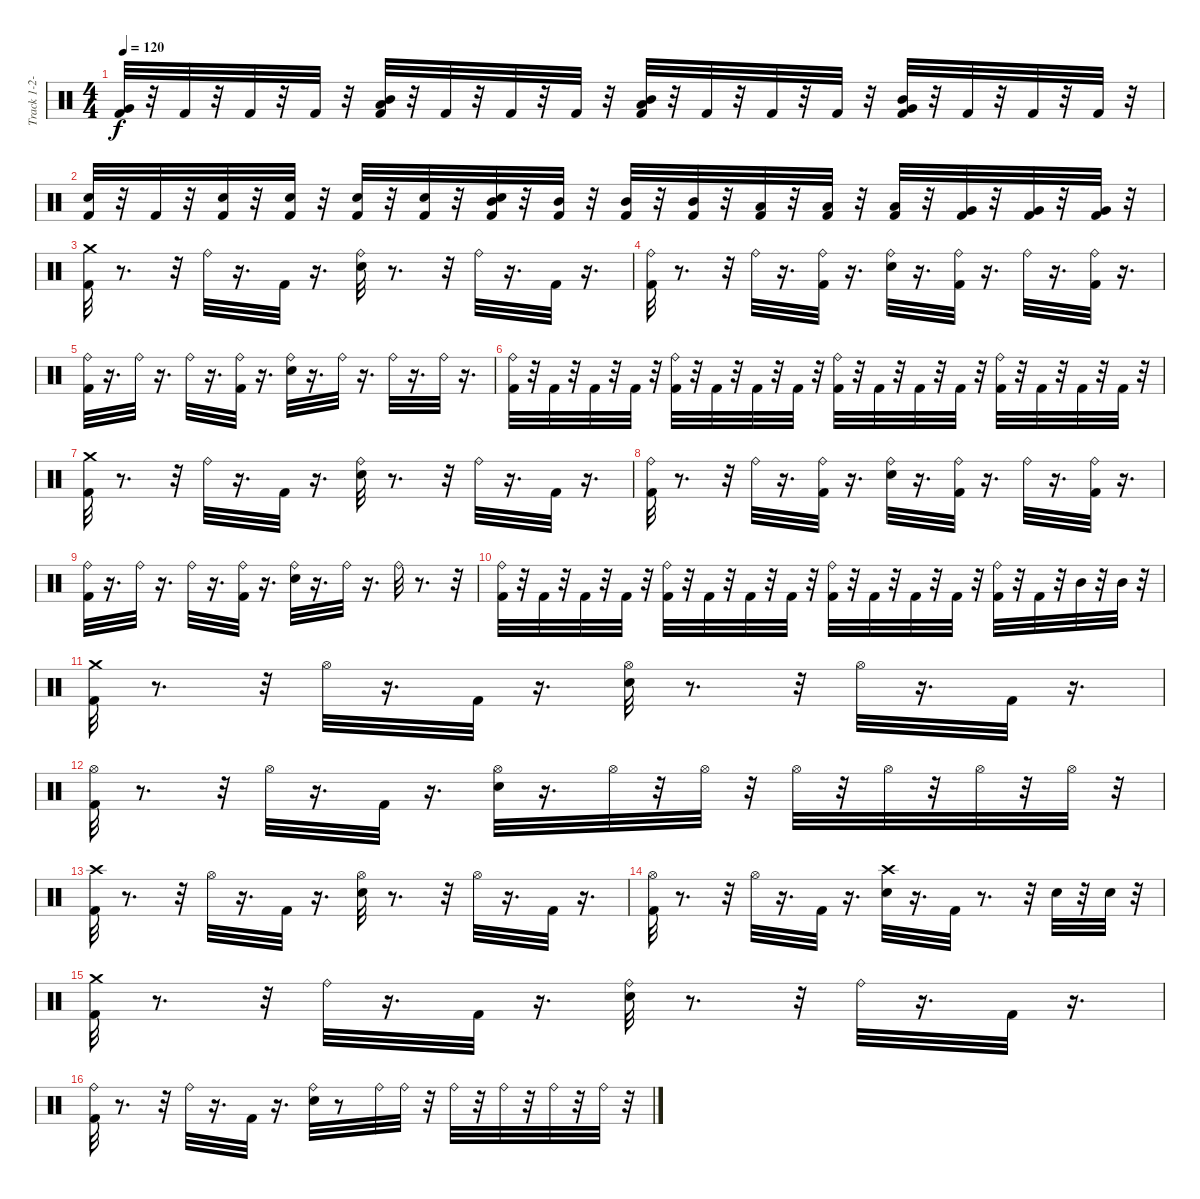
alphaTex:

\track ("Track 1-2-3-4" "Track 1-2-") {instrument percussion}
\staff {score}
\articulation defaults
\ts (4 4)
\tempo 120
\clef neutral
\ks c
("Kick (hit) 2" "Very Low Tom (hit)").32{dy f} r.32 "Kick (hit) 2".32 r.32 "Kick (hit) 2".32 r.32 "Kick (hit) 2".32 r.32 ("Kick (hit) 2" "Mid Tom (hit)" "Low Tom (hit)").32 r.32 "Kick (hit) 2".32 r.32 "Kick (hit) 2".32 r.32 "Kick (hit) 2".32 r.32 ("Kick (hit) 2" "Mid Tom (hit)" "Low Tom (hit)").32 r.32 "Kick (hit) 2".32 r.32 "Kick (hit) 2".32 r.32 "Kick (hit) 2".32 r.32 ("Kick (hit) 2" "Mid Tom (hit)" "Very Low Tom (hit)").32 r.32 "Kick (hit) 2".32 r.32 "Kick (hit) 2".32 r.32 "Kick (hit) 2".32 r.32 |
("Kick (hit) 2" "Electric Snare (hit)").32 r.32 "Kick (hit) 2".32 r.32 ("Kick (hit) 2" "Electric Snare (hit)").32 r.32 ("Kick (hit) 2" "Electric Snare (hit)").32 r.32 ("Kick (hit) 2" "Electric Snare (hit)").32 r.32 ("Kick (hit) 2" "Electric Snare (hit)").32 r.32 ("Kick (hit) 2" "Electric Snare (hit)" "Mid Tom (hit)").32 r.32 ("Kick (hit) 2" "Mid Tom (hit)").32 r.32 ("Kick (hit) 2" "Mid Tom (hit)").32 r.32 ("Kick (hit) 2" "Mid Tom (hit)").32 r.32 ("Kick (hit) 2" "Low Tom (hit)").32 r.32 ("Kick (hit) 2" "Low Tom (hit)").32 r.32 ("Kick (hit) 2" "Low Tom (hit)").32 r.32 ("Kick (hit) 2" "Very Low Tom (hit)").32 r.32 ("Kick (hit) 2" "Very Low Tom (hit)").32 r.32 ("Kick (hit) 2" "Very Low Tom (hit)").32 r.32 |
("Crash medium (hit)" "Kick (hit) 2").32 r.8{d} r.32 "Ride (bell)".32 r.16{d} "Kick (hit) 2".32 r.16{d} ("Ride (bell)" "Electric Snare (hit)").32 r.8{d} r.32 "Ride (bell)".32 r.16{d} "Kick (hit) 2".32 r.16{d} |
("Ride (bell)" "Kick (hit) 2").32 r.8{d} r.32 "Ride (bell)".32 r.16{d} ("Ride (bell)" "Kick (hit) 2").32 r.16{d} ("Ride (bell)" "Electric Snare (hit)").32 r.16{d} ("Ride (bell)" "Kick (hit) 2").32 r.16{d} "Ride (bell)".32 r.16{d} ("Ride (bell)" "Kick (hit) 2").32 r.16{d} |
("Ride (bell)" "Kick (hit) 2").32 r.16{d} "Ride (bell)".32 r.16{d} "Ride (bell)".32 r.16{d} ("Ride (bell)" "Kick (hit) 2").32 r.16{d} ("Ride (bell)" "Electric Snare (hit)").32 r.16{d} "Ride (bell)".32 r.16{d} "Ride (bell)".32 r.16{d} "Ride (bell)".32 r.16{d} |
("Ride (bell)" "Kick (hit) 2").32 r.32 "Kick (hit) 2".32 r.32 "Kick (hit) 2".32 r.32 "Kick (hit) 2".32 r.32 ("Ride (bell)" "Kick (hit) 2").32 r.32 "Kick (hit) 2".32 r.32 "Kick (hit) 2".32 r.32 "Kick (hit) 2".32 r.32 ("Ride (bell)" "Kick (hit) 2").32 r.32 "Kick (hit) 2".32 r.32 "Kick (hit) 2".32 r.32 "Kick (hit) 2".32 r.32 ("Ride (bell)" "Kick (hit) 2").32 r.32 "Kick (hit) 2".32 r.32 "Kick (hit) 2".32 r.32 "Kick (hit) 2".32 r.32 |
("Crash medium (hit)" "Kick (hit) 2").32 r.8{d} r.32 "Ride (bell)".32 r.16{d} "Kick (hit) 2".32 r.16{d} ("Ride (bell)" "Electric Snare (hit)").32 r.8{d} r.32 "Ride (bell)".32 r.16{d} "Kick (hit) 2".32 r.16{d} |
("Ride (bell)" "Kick (hit) 2").32 r.8{d} r.32 "Ride (bell)".32 r.16{d} ("Ride (bell)" "Kick (hit) 2").32 r.16{d} ("Ride (bell)" "Electric Snare (hit)").32 r.16{d} ("Ride (bell)" "Kick (hit) 2").32 r.16{d} "Ride (bell)".32 r.16{d} ("Ride (bell)" "Kick (hit) 2").32 r.16{d} |
("Ride (bell)" "Kick (hit) 2").32 r.16{d} "Ride (bell)".32 r.16{d} "Ride (bell)".32 r.16{d} ("Ride (bell)" "Kick (hit) 2").32 r.16{d} ("Ride (bell)" "Electric Snare (hit)").32 r.16{d} "Ride (bell)".32 r.16{d} "Ride (bell)".32 r.8{d} r.32 |
("Ride (bell)" "Kick (hit) 2").32 r.32 "Kick (hit) 2".32 r.32 "Kick (hit) 2".32 r.32 "Kick (hit) 2".32 r.32 ("Ride (bell)" "Kick (hit) 2").32 r.32 "Kick (hit) 2".32 r.32 "Kick (hit) 2".32 r.32 "Kick (hit) 2".32 r.32 ("Ride (bell)" "Kick (hit) 2").32 r.32 "Kick (hit) 2".32 r.32 "Kick (hit) 2".32 r.32 "Kick (hit) 2".32 r.32 ("Ride (bell)" "Kick (hit) 2").32 r.32 "Kick (hit) 2".32 r.32 "Mid Tom (hit)".32 r.32 "Mid Tom (hit)".32 r.32 |
("Crash medium (hit)" "Kick (hit) 2").32 r.8{d} r.32 "Hi-Hat (open)".32 r.16{d} "Kick (hit) 2".32 r.16{d} ("Hi-Hat (open)" "Electric Snare (hit)").32 r.8{d} r.32 "Hi-Hat (open)".32 r.16{d} "Kick (hit) 2".32 r.16{d} |
("Hi-Hat (open)" "Kick (hit) 2").32 r.8{d} r.32 "Hi-Hat (open)".32 r.16{d} "Kick (hit) 2".32 r.16{d} ("Hi-Hat (open)" "Electric Snare (hit)").32 r.16{d} "Hi-Hat (open)".32 r.32 "Hi-Hat (open)".32 r.32 "Hi-Hat (open)".32 r.32 "Hi-Hat (open)".32 r.32 "Hi-Hat (open)".32 r.32 "Hi-Hat (open)".32 r.32 |
("Crash high (hit)" "Kick (hit) 2").32 r.8{d} r.32 "Hi-Hat (open)".32 r.16{d} "Kick (hit) 2".32 r.16{d} ("Hi-Hat (open)" "Electric Snare (hit)").32 r.8{d} r.32 "Hi-Hat (open)".32 r.16{d} "Kick (hit) 2".32 r.16{d} |
("Hi-Hat (open)" "Kick (hit) 2").32 r.8{d} r.32 "Hi-Hat (open)".32 r.16{d} "Kick (hit) 2".32 r.16{d} ("Crash high (hit)" "Electric Snare (hit)").32 r.16{d} "Kick (hit) 2".32 r.8{d} r.32 "Electric Snare (hit)".32 r.32 "Electric Snare (hit)".32 r.32 |
("Crash medium (hit)" "Kick (hit) 2").32 r.8{d} r.32 "Ride (bell)".32 r.16{d} "Kick (hit) 2".32 r.16{d} ("Ride (bell)" "Electric Snare (hit)").32 r.8{d} r.32 "Ride (bell)".32 r.16{d} "Kick (hit) 2".32 r.16{d} |
("Ride (bell)" "Kick (hit) 2").32 r.8{d} r.32 "Ride (bell)".32 r.16{d} "Kick (hit) 2".32 r.16{d} ("Ride (bell)" "Electric Snare (hit)").32 r.8 "Ride (bell)".32 "Ride (bell)".32 r.32 "Ride (bell)".32 r.32 "Ride (bell)".32 r.32 "Ride (bell)".32 r.32 "Ride (bell)".32 r.32
